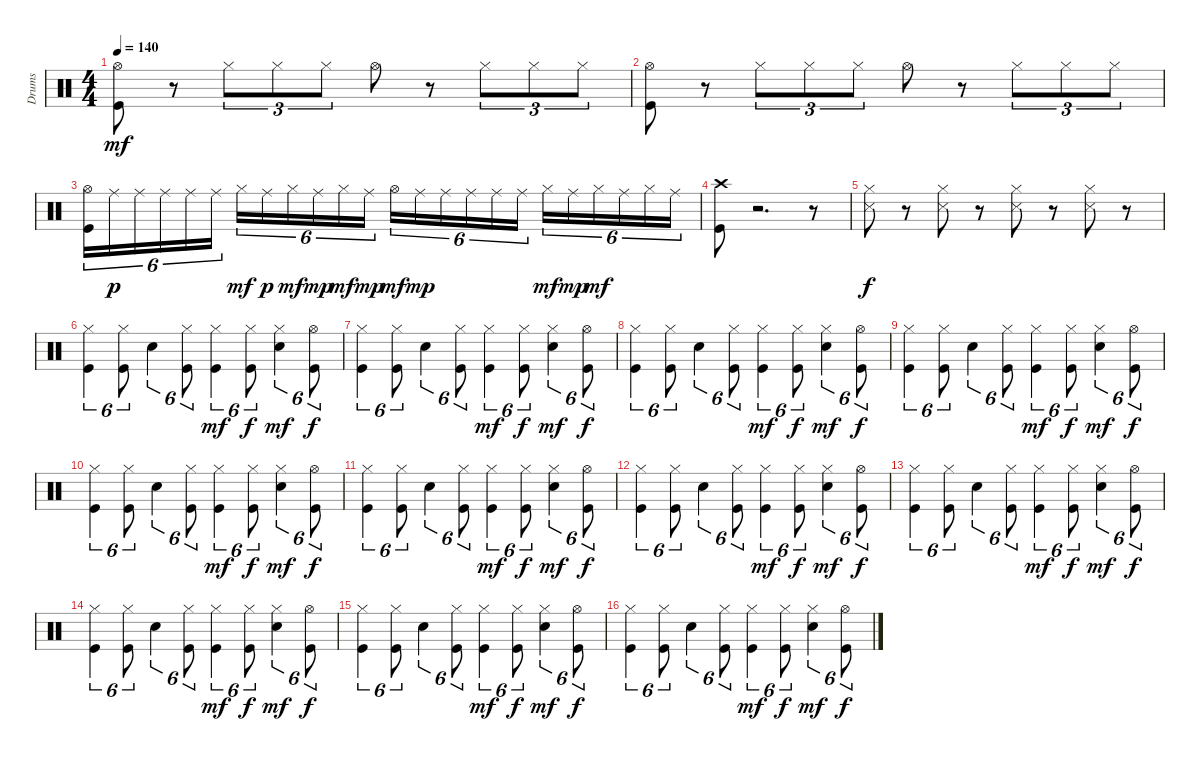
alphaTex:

\track ("Drums" "Drums") {instrument percussion}
\staff {score}
\articulation defaults
\ts (4 4)
\tempo 140
\clef neutral
\ks c
("Kick (hit)" "Hi-Hat (open)").8{dy mf} r.8 "Hi-Hat (closed)".8{tu (3 2)} "Hi-Hat (closed)".8{tu (3 2)} "Hi-Hat (closed)".8{tu (3 2)} "Hi-Hat (open)".8 r.8 "Hi-Hat (closed)".8{tu (3 2)} "Hi-Hat (closed)".8{tu (3 2)} "Hi-Hat (closed)".8{tu (3 2)} |
("Kick (hit)" "Hi-Hat (open)").8 r.8 "Hi-Hat (closed)".8{tu (3 2)} "Hi-Hat (closed)".8{tu (3 2)} "Hi-Hat (closed)".8{tu (3 2)} "Hi-Hat (open)".8 r.8 "Hi-Hat (closed)".8{tu (3 2)} "Hi-Hat (closed)".8{tu (3 2)} "Hi-Hat (closed)".8{tu (3 2)} |
("Kick (hit)" "Hi-Hat (open)").16{tu (6 4)} "Ride (middle)".16{tu (6 4) dy p} "Ride (middle)".16{tu (6 4)} "Ride (middle)".16{tu (6 4)} "Ride (middle)".16{tu (6 4)} "Ride (middle)".16{tu (6 4)} "Hi-Hat (closed)".16{tu (6 4) dy mf} "Ride (middle)".16{tu (6 4) dy p} "Hi-Hat (closed)".16{tu (6 4) dy mf} "Ride (middle)".16{tu (6 4) dy mp} "Hi-Hat (closed)".16{tu (6 4) dy mf} "Ride (middle)".16{tu (6 4) dy mp} "Hi-Hat (open)".16{tu (6 4) dy mf} "Ride (middle)".16{tu (6 4) dy mp} "Ride (middle)".16{tu (6 4)} "Ride (middle)".16{tu (6 4)} "Ride (middle)".16{tu (6 4)} "Ride (middle)".16{tu (6 4)} "Hi-Hat (closed)".16{tu (6 4) dy mf} "Ride (middle)".16{tu (6 4) dy mp} "Hi-Hat (closed)".16{tu (6 4) dy mf} "Ride (middle)".16{tu (6 4)} "Hi-Hat (closed)".16{tu (6 4)} "Ride (middle)".16{tu (6 4)} |
("Kick (hit)" "Crash high (hit)").8 r.2{d} r.8 |
("Snare (side stick) 3" "Hi-Hat (closed)").8{dy f} r.8 ("Snare (side stick) 3" "Hi-Hat (closed)").8 r.8 ("Snare (side stick) 3" "Hi-Hat (closed)").8 r.8 ("Snare (side stick) 3" "Hi-Hat (closed)").8 r.8 |
("Kick (hit)" "Hi-Hat (closed)").4{tu (6 4)} ("Kick (hit)" "Hi-Hat (closed)").8{tu (6 4)} "Electric Snare (hit)".4{tu (6 4)} ("Kick (hit)" "Hi-Hat (closed)").8{tu (6 4)} ("Kick (hit)" "Hi-Hat (closed)").4{tu (6 4) dy mf} ("Kick (hit)" "Hi-Hat (closed)").8{tu (6 4) dy f} ("Electric Snare (hit)" "Hi-Hat (closed)").4{tu (6 4) dy mf} ("Kick (hit)" "Hi-Hat (open)").8{tu (6 4) dy f} |
("Kick (hit)" "Hi-Hat (closed)").4{tu (6 4)} ("Kick (hit)" "Hi-Hat (closed)").8{tu (6 4)} "Electric Snare (hit)".4{tu (6 4)} ("Kick (hit)" "Hi-Hat (closed)").8{tu (6 4)} ("Kick (hit)" "Hi-Hat (closed)").4{tu (6 4) dy mf} ("Kick (hit)" "Hi-Hat (closed)").8{tu (6 4) dy f} ("Electric Snare (hit)" "Hi-Hat (closed)").4{tu (6 4) dy mf} ("Kick (hit)" "Hi-Hat (open)").8{tu (6 4) dy f} |
("Kick (hit)" "Hi-Hat (closed)").4{tu (6 4)} ("Kick (hit)" "Hi-Hat (closed)").8{tu (6 4)} "Electric Snare (hit)".4{tu (6 4)} ("Kick (hit)" "Hi-Hat (closed)").8{tu (6 4)} ("Kick (hit)" "Hi-Hat (closed)").4{tu (6 4) dy mf} ("Kick (hit)" "Hi-Hat (closed)").8{tu (6 4) dy f} ("Electric Snare (hit)" "Hi-Hat (closed)").4{tu (6 4) dy mf} ("Kick (hit)" "Hi-Hat (open)").8{tu (6 4) dy f} |
("Kick (hit)" "Hi-Hat (closed)").4{tu (6 4)} ("Kick (hit)" "Hi-Hat (closed)").8{tu (6 4)} "Electric Snare (hit)".4{tu (6 4)} ("Kick (hit)" "Hi-Hat (closed)").8{tu (6 4)} ("Kick (hit)" "Hi-Hat (closed)").4{tu (6 4) dy mf} ("Kick (hit)" "Hi-Hat (closed)").8{tu (6 4) dy f} ("Electric Snare (hit)" "Hi-Hat (closed)").4{tu (6 4) dy mf} ("Kick (hit)" "Hi-Hat (open)").8{tu (6 4) dy f} |
("Kick (hit)" "Hi-Hat (closed)").4{tu (6 4)} ("Kick (hit)" "Hi-Hat (closed)").8{tu (6 4)} "Electric Snare (hit)".4{tu (6 4)} ("Kick (hit)" "Hi-Hat (closed)").8{tu (6 4)} ("Kick (hit)" "Hi-Hat (closed)").4{tu (6 4) dy mf} ("Kick (hit)" "Hi-Hat (closed)").8{tu (6 4) dy f} ("Electric Snare (hit)" "Hi-Hat (closed)").4{tu (6 4) dy mf} ("Kick (hit)" "Hi-Hat (open)").8{tu (6 4) dy f} |
("Kick (hit)" "Hi-Hat (closed)").4{tu (6 4)} ("Kick (hit)" "Hi-Hat (closed)").8{tu (6 4)} "Electric Snare (hit)".4{tu (6 4)} ("Kick (hit)" "Hi-Hat (closed)").8{tu (6 4)} ("Kick (hit)" "Hi-Hat (closed)").4{tu (6 4) dy mf} ("Kick (hit)" "Hi-Hat (closed)").8{tu (6 4) dy f} ("Electric Snare (hit)" "Hi-Hat (closed)").4{tu (6 4) dy mf} ("Kick (hit)" "Hi-Hat (open)").8{tu (6 4) dy f} |
("Kick (hit)" "Hi-Hat (closed)").4{tu (6 4)} ("Kick (hit)" "Hi-Hat (closed)").8{tu (6 4)} "Electric Snare (hit)".4{tu (6 4)} ("Kick (hit)" "Hi-Hat (closed)").8{tu (6 4)} ("Kick (hit)" "Hi-Hat (closed)").4{tu (6 4) dy mf} ("Kick (hit)" "Hi-Hat (closed)").8{tu (6 4) dy f} ("Electric Snare (hit)" "Hi-Hat (closed)").4{tu (6 4) dy mf} ("Kick (hit)" "Hi-Hat (open)").8{tu (6 4) dy f} |
("Kick (hit)" "Hi-Hat (closed)").4{tu (6 4)} ("Kick (hit)" "Hi-Hat (closed)").8{tu (6 4)} "Electric Snare (hit)".4{tu (6 4)} ("Kick (hit)" "Hi-Hat (closed)").8{tu (6 4)} ("Kick (hit)" "Hi-Hat (closed)").4{tu (6 4) dy mf} ("Kick (hit)" "Hi-Hat (closed)").8{tu (6 4) dy f} ("Electric Snare (hit)" "Hi-Hat (closed)").4{tu (6 4) dy mf} ("Kick (hit)" "Hi-Hat (open)").8{tu (6 4) dy f} |
("Kick (hit)" "Hi-Hat (closed)").4{tu (6 4)} ("Kick (hit)" "Hi-Hat (closed)").8{tu (6 4)} "Electric Snare (hit)".4{tu (6 4)} ("Kick (hit)" "Hi-Hat (closed)").8{tu (6 4)} ("Kick (hit)" "Hi-Hat (closed)").4{tu (6 4) dy mf} ("Kick (hit)" "Hi-Hat (closed)").8{tu (6 4) dy f} ("Electric Snare (hit)" "Hi-Hat (closed)").4{tu (6 4) dy mf} ("Kick (hit)" "Hi-Hat (open)").8{tu (6 4) dy f} |
("Kick (hit)" "Hi-Hat (closed)").4{tu (6 4)} ("Kick (hit)" "Hi-Hat (closed)").8{tu (6 4)} "Electric Snare (hit)".4{tu (6 4)} ("Kick (hit)" "Hi-Hat (closed)").8{tu (6 4)} ("Kick (hit)" "Hi-Hat (closed)").4{tu (6 4) dy mf} ("Kick (hit)" "Hi-Hat (closed)").8{tu (6 4) dy f} ("Electric Snare (hit)" "Hi-Hat (closed)").4{tu (6 4) dy mf} ("Kick (hit)" "Hi-Hat (open)").8{tu (6 4) dy f} |
("Kick (hit)" "Hi-Hat (closed)").4{tu (6 4)} ("Kick (hit)" "Hi-Hat (closed)").8{tu (6 4)} "Electric Snare (hit)".4{tu (6 4)} ("Kick (hit)" "Hi-Hat (closed)").8{tu (6 4)} ("Kick (hit)" "Hi-Hat (closed)").4{tu (6 4) dy mf} ("Kick (hit)" "Hi-Hat (closed)").8{tu (6 4) dy f} ("Electric Snare (hit)" "Hi-Hat (closed)").4{tu (6 4) dy mf} ("Kick (hit)" "Hi-Hat (open)").8{tu (6 4) dy f}
